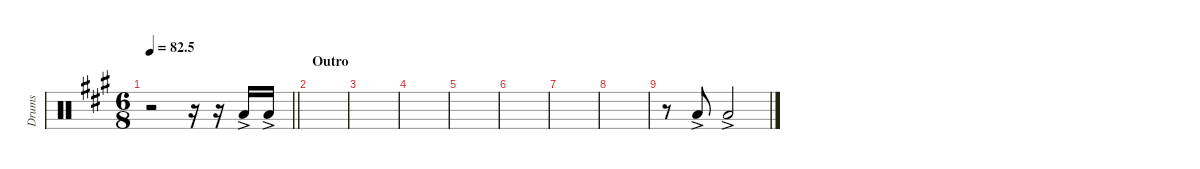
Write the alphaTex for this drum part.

\defaultSystemsLayout 4
\hideDynamics
\bracketExtendMode nobrackets
\otherSystemsTrackNameOrientation horizontal
\track ("Tom 03" "Drums") {instrument percussion}
\staff {score}
\articulation defaults
\ts (6 8)
\tempo
82.5
\accidentals auto
\clef neutral
\ottava regular
\simile none
\scale
0.333333
\barLineRight lightlight
\ks a
r.2{dy f} r.16 r.16 "Low Tom (hit)"{ac acc forcenatural}.16 "Low Tom (hit)"{ac acc forcenatural}.16 |
\section ("" "Outro")
\scale
0.333333 |
\scale
0.333333 |
\scale
0.333333 |
\scale
0.333333 |
\scale
0.333333 |
\scale
0.333333 |
\scale
0.333333 |
\scale
0.333333 r.8 "Low Tom (hit)"{ac acc forcenatural}.8 "Low Tom (hit)"{ac acc forcenatural}.2 |
\scale
0.333333 |
\scale
0.333333 |
\scale
0.333333
